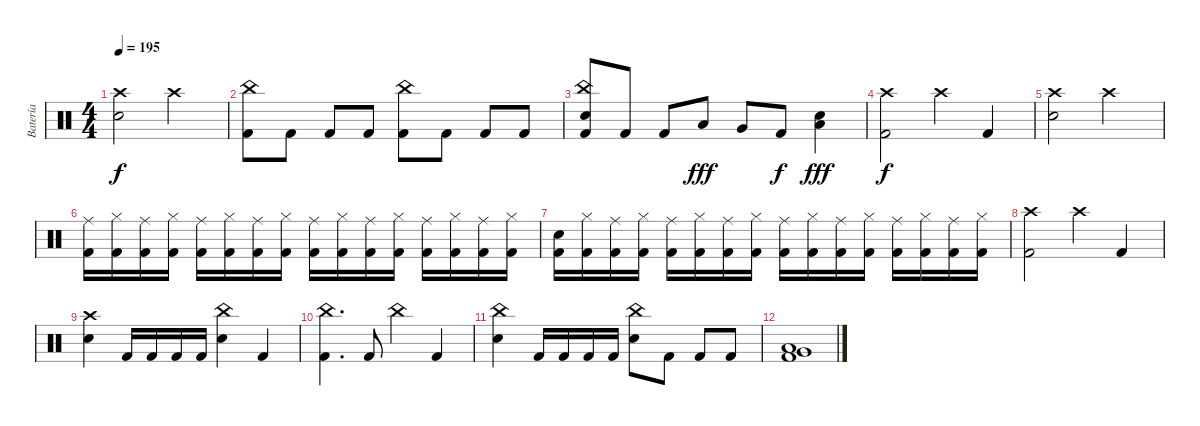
\track ("Batería" "Batería") {instrument percussion}
\staff {score}
\articulation defaults
\ts (4 4)
\tempo 195
\clef neutral
\ks c
("Crash high (hit)" "Snare (hit) 2").2{dy f} "Crash high (hit)".2 |
("China (hit)" "Kick (hit) 2").8 "Kick (hit) 2".8 "Kick (hit) 2".8 "Kick (hit) 2".8 ("China (hit)" "Kick (hit) 2").8 "Kick (hit) 2".8 "Kick (hit) 2".8 "Kick (hit) 2".8 |
("China (hit)" "Snare (hit) 2" "Kick (hit) 2").8 "Kick (hit) 2".8 "Kick (hit) 2".8 "Low Tom (hit)".8{dy fff} "Very Low Tom (hit)".8 "Kick (hit) 2".8{dy f} ("Low Floor Tom (hit)" "Snare (hit) 2").4{dy fff} |
("Crash high (hit)" "Kick (hit) 2").2{dy f} "Crash high (hit)".4 "Kick (hit) 2".4 |
("Crash high (hit)" "Snare (hit) 2").2 "Crash high (hit)".2 |
("Ride (middle)" "Kick (hit) 2").16 ("Hi-Hat (closed)" "Kick (hit) 2").16 ("Ride (middle)" "Kick (hit) 2").16 ("Hi-Hat (closed)" "Kick (hit) 2").16 ("Ride (middle)" "Kick (hit) 2").16 ("Hi-Hat (closed)" "Kick (hit) 2").16 ("Ride (middle)" "Kick (hit) 2").16 ("Hi-Hat (closed)" "Kick (hit) 2").16 ("Ride (middle)" "Kick (hit) 2").16 ("Hi-Hat (closed)" "Kick (hit) 2").16 ("Ride (middle)" "Kick (hit) 2").16 ("Hi-Hat (closed)" "Kick (hit) 2").16 ("Ride (middle)" "Kick (hit) 2").16 ("Hi-Hat (closed)" "Kick (hit) 2").16 ("Ride (middle)" "Kick (hit) 2").16 ("Hi-Hat (closed)" "Kick (hit) 2").16 |
("Snare (hit) 2" "Kick (hit) 2").16 ("Hi-Hat (closed)" "Kick (hit) 2").16 ("Ride (middle)" "Kick (hit) 2").16 ("Hi-Hat (closed)" "Kick (hit) 2").16 ("Ride (middle)" "Kick (hit) 2").16 ("Hi-Hat (closed)" "Kick (hit) 2").16 ("Ride (middle)" "Kick (hit) 2").16 ("Hi-Hat (closed)" "Kick (hit) 2").16 ("Ride (middle)" "Kick (hit) 2").16 ("Hi-Hat (closed)" "Kick (hit) 2").16 ("Ride (middle)" "Kick (hit) 2").16 ("Hi-Hat (closed)" "Kick (hit) 2").16 ("Ride (middle)" "Kick (hit) 2").16 ("Hi-Hat (closed)" "Kick (hit) 2").16 ("Ride (middle)" "Kick (hit) 2").16 ("Hi-Hat (closed)" "Kick (hit) 2").16 |
("Crash high (hit)" "Kick (hit) 2").2 "Crash high (hit)".4 "Kick (hit) 2".4 |
("Crash high (hit)" "Snare (hit) 2").4 "Kick (hit) 2".16 "Kick (hit) 2".16 "Kick (hit) 2".16 "Kick (hit) 2".16 ("China (hit)" "Snare (hit) 2").4 "Kick (hit) 2".4 |
("China (hit)" "Kick (hit) 2").4{d} "Kick (hit) 2".8 "China (hit)".4 "Kick (hit) 2".4 |
("China (hit)" "Snare (hit) 2").4 "Kick (hit) 2".16 "Kick (hit) 2".16 "Kick (hit) 2".16 "Kick (hit) 2".16 ("China (hit)" "Snare (hit) 2").8 "Kick (hit) 2".8 "Kick (hit) 2".8 "Kick (hit) 2".8 |
("Low Floor Tom (hit)" "Very Low Tom (hit)" "Kick (hit) 2").1
